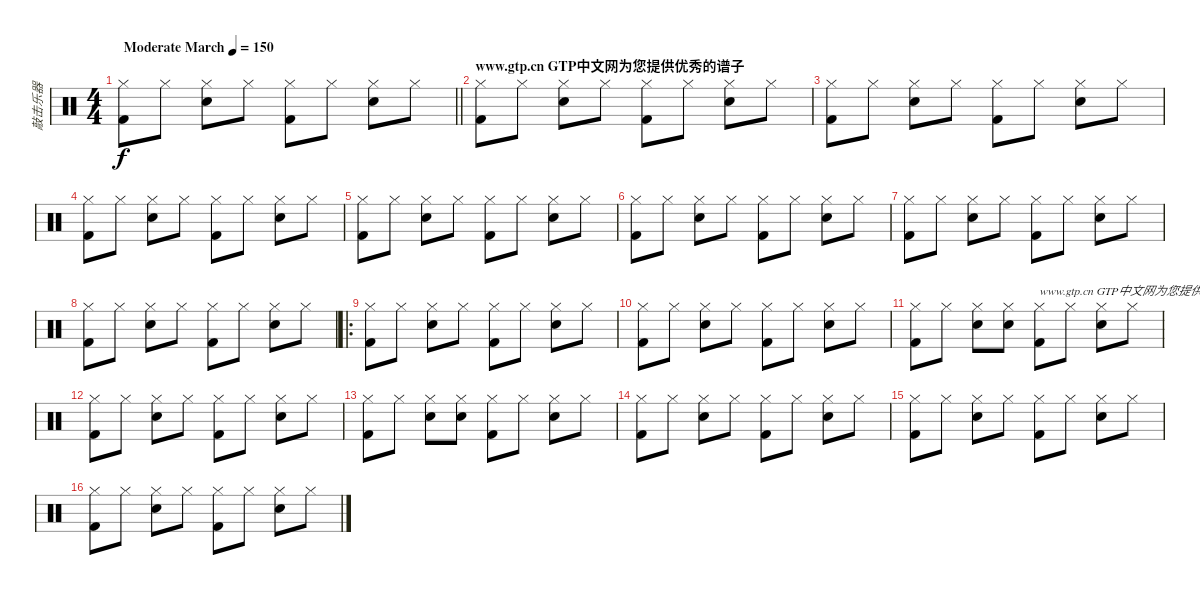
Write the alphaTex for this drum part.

\track ("敲击乐器" "敲击乐器") {instrument percussion}
\staff {score}
\articulation defaults
\ts (4 4)
\tempo (150 "Moderate March")
\clef neutral
\barLineRight lightlight
\ks c
("Kick (hit) 2" "Hi-Hat (closed)").8{dy f} "Hi-Hat (closed)".8 ("Electric Snare (hit)" "Hi-Hat (closed)").8 "Hi-Hat (closed)".8 ("Kick (hit) 2" "Hi-Hat (closed)").8 "Hi-Hat (closed)".8 ("Electric Snare (hit)" "Hi-Hat (closed)").8 "Hi-Hat (closed)".8 |
\section ("" "www.gtp.cn GTP中文网为您提供优秀的谱子")
("Kick (hit) 2" "Hi-Hat (closed)").8 "Hi-Hat (closed)".8 ("Electric Snare (hit)" "Hi-Hat (closed)").8 "Hi-Hat (closed)".8 ("Kick (hit) 2" "Hi-Hat (closed)").8 "Hi-Hat (closed)".8 ("Electric Snare (hit)" "Hi-Hat (closed)").8 "Hi-Hat (closed)".8 |
("Kick (hit) 2" "Hi-Hat (closed)").8 "Hi-Hat (closed)".8 ("Electric Snare (hit)" "Hi-Hat (closed)").8 "Hi-Hat (closed)".8 ("Kick (hit) 2" "Hi-Hat (closed)").8 "Hi-Hat (closed)".8 ("Electric Snare (hit)" "Hi-Hat (closed)").8 "Hi-Hat (closed)".8 |
("Kick (hit) 2" "Hi-Hat (closed)").8 "Hi-Hat (closed)".8 ("Electric Snare (hit)" "Hi-Hat (closed)").8 "Hi-Hat (closed)".8 ("Kick (hit) 2" "Hi-Hat (closed)").8 "Hi-Hat (closed)".8 ("Electric Snare (hit)" "Hi-Hat (closed)").8 "Hi-Hat (closed)".8 |
("Kick (hit) 2" "Hi-Hat (closed)").8 "Hi-Hat (closed)".8 ("Electric Snare (hit)" "Hi-Hat (closed)").8 "Hi-Hat (closed)".8 ("Kick (hit) 2" "Hi-Hat (closed)").8 "Hi-Hat (closed)".8 ("Electric Snare (hit)" "Hi-Hat (closed)").8 "Hi-Hat (closed)".8 |
("Kick (hit) 2" "Hi-Hat (closed)").8 "Hi-Hat (closed)".8 ("Electric Snare (hit)" "Hi-Hat (closed)").8 "Hi-Hat (closed)".8 ("Kick (hit) 2" "Hi-Hat (closed)").8 "Hi-Hat (closed)".8 ("Electric Snare (hit)" "Hi-Hat (closed)").8 "Hi-Hat (closed)".8 |
("Kick (hit) 2" "Hi-Hat (closed)").8 "Hi-Hat (closed)".8 ("Electric Snare (hit)" "Hi-Hat (closed)").8 "Hi-Hat (closed)".8 ("Kick (hit) 2" "Hi-Hat (closed)").8 "Hi-Hat (closed)".8 ("Electric Snare (hit)" "Hi-Hat (closed)").8 "Hi-Hat (closed)".8 |
("Kick (hit) 2" "Hi-Hat (closed)").8 "Hi-Hat (closed)".8 ("Electric Snare (hit)" "Hi-Hat (closed)").8 "Hi-Hat (closed)".8 ("Kick (hit) 2" "Hi-Hat (closed)").8 "Hi-Hat (closed)".8 ("Electric Snare (hit)" "Hi-Hat (closed)").8 "Hi-Hat (closed)".8 |
\ro
("Kick (hit) 2" "Hi-Hat (closed)").8 "Hi-Hat (closed)".8 ("Electric Snare (hit)" "Hi-Hat (closed)").8 "Hi-Hat (closed)".8 ("Kick (hit) 2" "Hi-Hat (closed)").8 "Hi-Hat (closed)".8 ("Electric Snare (hit)" "Hi-Hat (closed)").8 "Hi-Hat (closed)".8 |
("Kick (hit) 2" "Hi-Hat (closed)").8 "Hi-Hat (closed)".8 ("Electric Snare (hit)" "Hi-Hat (closed)").8 "Hi-Hat (closed)".8 ("Kick (hit) 2" "Hi-Hat (closed)").8 "Hi-Hat (closed)".8 ("Electric Snare (hit)" "Hi-Hat (closed)").8 "Hi-Hat (closed)".8 |
("Kick (hit) 2" "Hi-Hat (closed)").8 "Hi-Hat (closed)".8 ("Electric Snare (hit)" "Hi-Hat (closed)").8 ("Hi-Hat (closed)" "Electric Snare (hit)").8 ("Kick (hit) 2" "Hi-Hat (closed)").8{txt "www.gtp.cn GTP中文网为您提供优秀的谱子"} "Hi-Hat (closed)".8 ("Electric Snare (hit)" "Hi-Hat (closed)").8 "Hi-Hat (closed)".8 |
("Kick (hit) 2" "Hi-Hat (closed)").8 "Hi-Hat (closed)".8 ("Electric Snare (hit)" "Hi-Hat (closed)").8 "Hi-Hat (closed)".8 ("Kick (hit) 2" "Hi-Hat (closed)").8 "Hi-Hat (closed)".8 ("Electric Snare (hit)" "Hi-Hat (closed)").8 "Hi-Hat (closed)".8 |
("Kick (hit) 2" "Hi-Hat (closed)").8 "Hi-Hat (closed)".8 ("Electric Snare (hit)" "Hi-Hat (closed)").8 ("Hi-Hat (closed)" "Electric Snare (hit)").8 ("Kick (hit) 2" "Hi-Hat (closed)").8 "Hi-Hat (closed)".8 ("Electric Snare (hit)" "Hi-Hat (closed)").8 "Hi-Hat (closed)".8 |
("Kick (hit) 2" "Hi-Hat (closed)").8 "Hi-Hat (closed)".8 ("Electric Snare (hit)" "Hi-Hat (closed)").8 "Hi-Hat (closed)".8 ("Kick (hit) 2" "Hi-Hat (closed)").8 "Hi-Hat (closed)".8 ("Electric Snare (hit)" "Hi-Hat (closed)").8 "Hi-Hat (closed)".8 |
("Kick (hit) 2" "Hi-Hat (closed)").8 "Hi-Hat (closed)".8 ("Electric Snare (hit)" "Hi-Hat (closed)").8 "Hi-Hat (closed)".8 ("Kick (hit) 2" "Hi-Hat (closed)").8 "Hi-Hat (closed)".8 ("Electric Snare (hit)" "Hi-Hat (closed)").8 "Hi-Hat (closed)".8 |
("Kick (hit) 2" "Hi-Hat (closed)").8 "Hi-Hat (closed)".8 ("Electric Snare (hit)" "Hi-Hat (closed)").8 "Hi-Hat (closed)".8 ("Kick (hit) 2" "Hi-Hat (closed)").8 "Hi-Hat (closed)".8 ("Electric Snare (hit)" "Hi-Hat (closed)").8 "Hi-Hat (closed)".8
